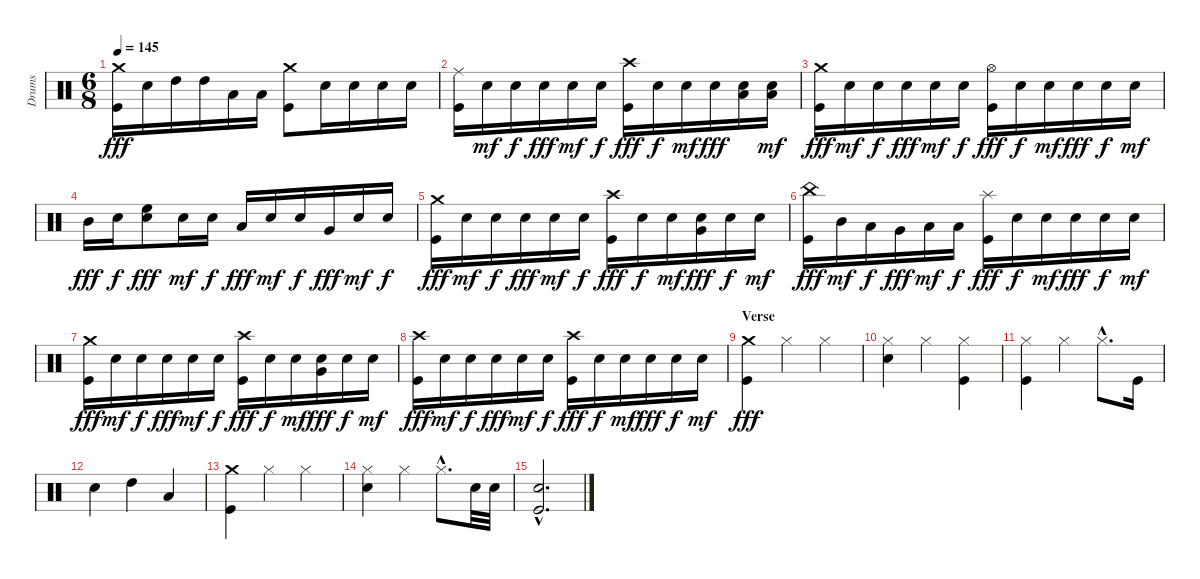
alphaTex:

\track ("Drums" "Drums") {instrument percussion}
\staff {score}
\articulation defaults
\ts (6 8)
\tempo 145
\clef neutral
\ks c
("Crash medium (hit)" "Kick (hit)").16{dy fff} "Snare (hit) 2".16 "High Tom (hit)".16 "High Tom (hit)".16 "Low Tom (hit)".16 "Low Tom (hit)".16 ("Crash medium (hit)" "Kick (hit)").8 "Snare (hit) 2".16 "Snare (hit) 2".16 "Snare (hit) 2".16 "Snare (hit) 2".16 |
("Ride (middle)" "Kick (hit)").16 "Snare (hit) 2".16{dy mf} "Snare (hit) 2".16{dy f} "Snare (hit) 2".16{dy fff} "Snare (hit) 2".16{dy mf} "Snare (hit) 2".16{dy f} ("Crash high (hit)" "Kick (hit)").16{dy fff} "Snare (hit) 2".16{dy f} "Snare (hit) 2".16{dy mf} "Snare (hit) 2".16{dy fff} ("Low Tom (hit)" "Snare (hit) 2").16 ("Low Tom (hit)" "Snare (hit) 2").16{dy mf} |
("Crash medium (hit)" "Kick (hit)").16{dy fff} "Snare (hit) 2".16{dy mf} "Snare (hit) 2".16{dy f} "Snare (hit) 2".16{dy fff} "Snare (hit) 2".16{dy mf} "Snare (hit) 2".16{dy f} ("Hi-Hat (open)" "Kick (hit)").16{dy fff} "Snare (hit) 2".16{dy f} "Snare (hit) 2".16{dy mf} "Snare (hit) 2".16{dy fff} "Snare (hit) 2".16{dy f} "Snare (hit) 2".16{dy mf} |
"Mid Tom (hit)".16{dy fff} "Snare (hit) 2".16{dy f} ("High Floor Tom (hit)" "Snare (hit) 2").8{dy fff} "Snare (hit) 2".16{dy mf} "Snare (hit) 2".16{dy f} "Low Tom (hit)".16{dy fff} "Snare (hit) 2".16{dy mf} "Snare (hit) 2".16{dy f} "Very Low Tom (hit)".16{dy fff} "Snare (hit) 2".16{dy mf} "Snare (hit) 2".16{dy f} |
("Crash medium (hit)" "Kick (hit)").16{dy fff} "Snare (hit) 2".16{dy mf} "Snare (hit) 2".16{dy f} "Snare (hit) 2".16{dy fff} "Snare (hit) 2".16{dy mf} "Snare (hit) 2".16{dy f} ("Crash high (hit)" "Kick (hit)").16{dy fff} "Snare (hit) 2".16{dy f} "Snare (hit) 2".16{dy mf} ("Very Low Tom (hit)" "Snare (hit) 2").16{dy fff} "Snare (hit) 2".16{dy f} "Snare (hit) 2".16{dy mf} |
("China (hit)" "Kick (hit)").16{dy fff} "Mid Tom (hit)".16{dy mf} "Low Tom (hit)".16{dy f} "Very Low Tom (hit)".16{dy fff} "Low Floor Tom (hit)".16{dy mf} "Low Floor Tom (hit)".16{dy f} ("Splash (hit)" "Kick (hit)").16{dy fff} "Snare (hit) 2".16{dy f} "Snare (hit) 2".16{dy mf} "Snare (hit) 2".16{dy fff} "Snare (hit) 2".16{dy f} "Snare (hit) 2".16{dy mf} |
("Crash medium (hit)" "Kick (hit)").16{dy fff} "Snare (hit) 2".16{dy mf} "Snare (hit) 2".16{dy f} "Snare (hit) 2".16{dy fff} "Snare (hit) 2".16{dy mf} "Snare (hit) 2".16{dy f} ("Crash high (hit)" "Kick (hit)").16{dy fff} "Snare (hit) 2".16{dy f} "Snare (hit) 2".16{dy mf} ("Very Low Tom (hit)" "Snare (hit) 2").16{dy fff} "Snare (hit) 2".16{dy f} "Snare (hit) 2".16{dy mf} |
("Crash high (hit)" "Kick (hit)").16{dy fff} "Snare (hit) 2".16{dy mf} "Snare (hit) 2".16{dy f} "Snare (hit) 2".16{dy fff} "Snare (hit) 2".16{dy mf} "Snare (hit) 2".16{dy f} ("Crash high (hit)" "Kick (hit)").16{dy fff} "Snare (hit) 2".16{dy f} "Snare (hit) 2".16{dy mf} "Snare (hit) 2".16{dy fff} "Snare (hit) 2".16{dy f} "Snare (hit) 2".16{dy mf} |
\section ("" "Verse")
("Crash medium (hit)" "Kick (hit)").4{dy fff} "Hi-Hat (closed)".4 "Hi-Hat (closed)".4 |
("Hi-Hat (closed)" "Snare (hit) 2").4 "Hi-Hat (closed)".4 ("Hi-Hat (closed)" "Kick (hit)").4 |
("Hi-Hat (closed)" "Kick (hit)").4 "Hi-Hat (closed)".4 "Hi-Hat (closed)"{hac}.8{d} "Kick (hit)".16 |
"Snare (hit) 2".4 "High Tom (hit)".4 "Low Tom (hit)".4 |
("Crash medium (hit)" "Kick (hit)").4 "Hi-Hat (closed)".4 "Hi-Hat (closed)".4 |
("Hi-Hat (closed)" "Snare (hit) 2").4 "Hi-Hat (closed)".4 "Hi-Hat (closed)"{hac}.8{d} "Snare (hit) 2".32 "Snare (hit) 2".32 |
("Snare (hit) 2"{hac} "Kick (hit)"{hac}).2{d}
